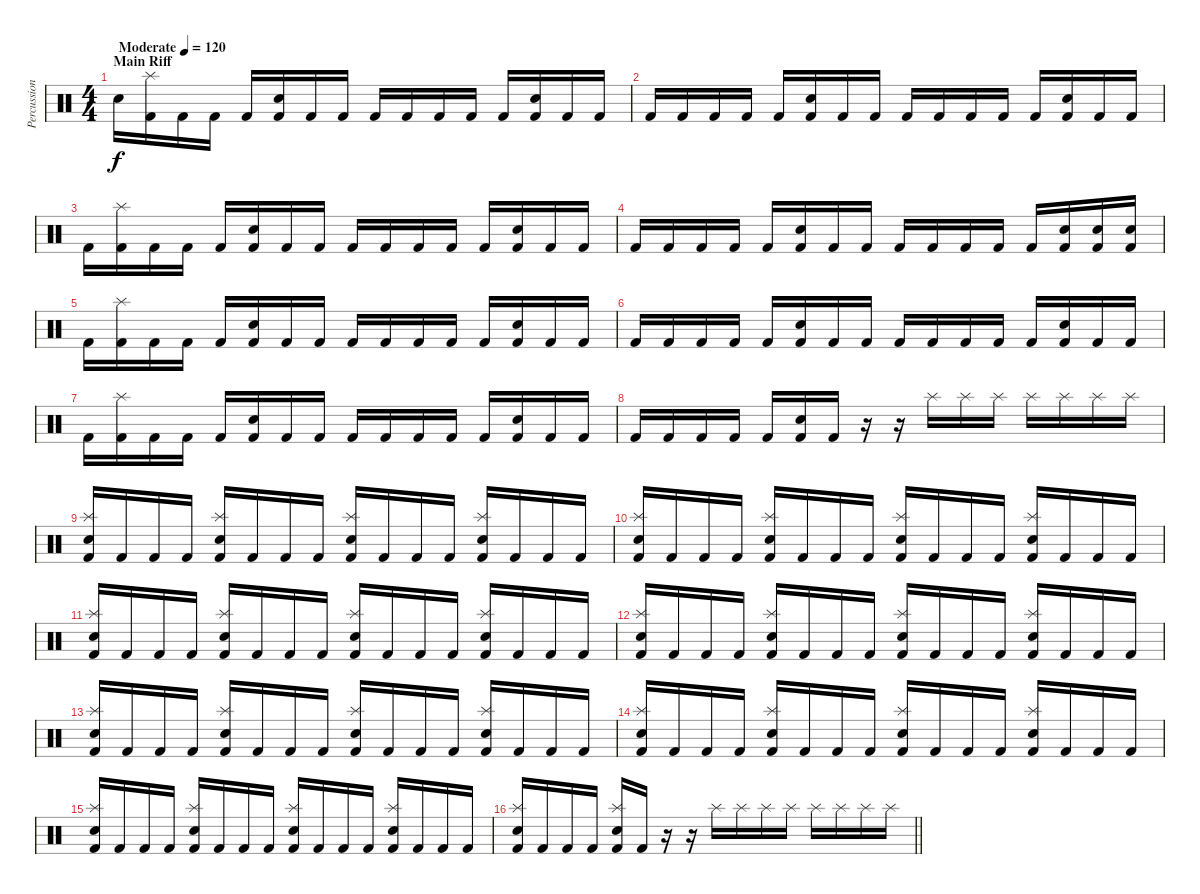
\track ("Percussion" "Percussion") {instrument percussion}
\staff {score}
\articulation defaults
\ts (4 4)
\section ("" "Main Riff")
\tempo (120 "Moderate")
\clef neutral
\ks c "Electric Snare (hit)".16{dy f}
("Splash (hit)" "Kick (hit) 2").16 "Kick (hit) 2".16 "Kick (hit) 2".16 "Kick (hit) 2".16 ("Electric Snare (hit)" "Kick (hit) 2").16 "Kick (hit) 2".16 "Kick (hit) 2".16 "Kick (hit) 2".16 "Kick (hit) 2".16 "Kick (hit) 2".16 "Kick (hit) 2".16 "Kick (hit) 2".16 ("Electric Snare (hit)" "Kick (hit) 2").16 "Kick (hit) 2".16 "Kick (hit) 2".16 |
"Kick (hit) 2".16 "Kick (hit) 2".16 "Kick (hit) 2".16 "Kick (hit) 2".16 "Kick (hit) 2".16 ("Electric Snare (hit)" "Kick (hit) 2").16 "Kick (hit) 2".16 "Kick (hit) 2".16 "Kick (hit) 2".16 "Kick (hit) 2".16 "Kick (hit) 2".16 "Kick (hit) 2".16 "Kick (hit) 2".16 ("Electric Snare (hit)" "Kick (hit) 2").16 "Kick (hit) 2".16 "Kick (hit) 2".16 |
"Kick (hit) 2".16 ("Splash (hit)" "Kick (hit) 2").16 "Kick (hit) 2".16 "Kick (hit) 2".16 "Kick (hit) 2".16 ("Electric Snare (hit)" "Kick (hit) 2").16 "Kick (hit) 2".16 "Kick (hit) 2".16 "Kick (hit) 2".16 "Kick (hit) 2".16 "Kick (hit) 2".16 "Kick (hit) 2".16 "Kick (hit) 2".16 ("Electric Snare (hit)" "Kick (hit) 2").16 "Kick (hit) 2".16 "Kick (hit) 2".16 |
"Kick (hit) 2".16 "Kick (hit) 2".16 "Kick (hit) 2".16 "Kick (hit) 2".16 "Kick (hit) 2".16 ("Electric Snare (hit)" "Kick (hit) 2").16 "Kick (hit) 2".16 "Kick (hit) 2".16 "Kick (hit) 2".16 "Kick (hit) 2".16 "Kick (hit) 2".16 "Kick (hit) 2".16 "Kick (hit) 2".16 ("Electric Snare (hit)" "Kick (hit) 2").16 ("Electric Snare (hit)" "Kick (hit) 2").16 ("Electric Snare (hit)" "Kick (hit) 2").16 |
"Kick (hit) 2".16 ("Splash (hit)" "Kick (hit) 2").16 "Kick (hit) 2".16 "Kick (hit) 2".16 "Kick (hit) 2".16 ("Electric Snare (hit)" "Kick (hit) 2").16 "Kick (hit) 2".16 "Kick (hit) 2".16 "Kick (hit) 2".16 "Kick (hit) 2".16 "Kick (hit) 2".16 "Kick (hit) 2".16 "Kick (hit) 2".16 ("Electric Snare (hit)" "Kick (hit) 2").16 "Kick (hit) 2".16 "Kick (hit) 2".16 |
"Kick (hit) 2".16 "Kick (hit) 2".16 "Kick (hit) 2".16 "Kick (hit) 2".16 "Kick (hit) 2".16 ("Electric Snare (hit)" "Kick (hit) 2").16 "Kick (hit) 2".16 "Kick (hit) 2".16 "Kick (hit) 2".16 "Kick (hit) 2".16 "Kick (hit) 2".16 "Kick (hit) 2".16 "Kick (hit) 2".16 ("Electric Snare (hit)" "Kick (hit) 2").16 "Kick (hit) 2".16 "Kick (hit) 2".16 |
"Kick (hit) 2".16 ("Splash (hit)" "Kick (hit) 2").16 "Kick (hit) 2".16 "Kick (hit) 2".16 "Kick (hit) 2".16 ("Electric Snare (hit)" "Kick (hit) 2").16 "Kick (hit) 2".16 "Kick (hit) 2".16 "Kick (hit) 2".16 "Kick (hit) 2".16 "Kick (hit) 2".16 "Kick (hit) 2".16 "Kick (hit) 2".16 ("Electric Snare (hit)" "Kick (hit) 2").16 "Kick (hit) 2".16 "Kick (hit) 2".16 |
"Kick (hit) 2".16 "Kick (hit) 2".16 "Kick (hit) 2".16 "Kick (hit) 2".16 "Kick (hit) 2".16 ("Electric Snare (hit)" "Kick (hit) 2").16 "Kick (hit) 2".16 r.16 r.16 "Splash (hit)".16 "Splash (hit)".16 "Splash (hit)".16 "Splash (hit)".16 "Splash (hit)".16 "Splash (hit)".16 "Splash (hit)".16 |
("Splash (hit)" "Electric Snare (hit)" "Kick (hit) 2").16 "Kick (hit) 2".16 "Kick (hit) 2".16 "Kick (hit) 2".16 ("Splash (hit)" "Electric Snare (hit)" "Kick (hit) 2").16 "Kick (hit) 2".16 "Kick (hit) 2".16 "Kick (hit) 2".16 ("Splash (hit)" "Electric Snare (hit)" "Kick (hit) 2").16 "Kick (hit) 2".16 "Kick (hit) 2".16 "Kick (hit) 2".16 ("Splash (hit)" "Electric Snare (hit)" "Kick (hit) 2").16 "Kick (hit) 2".16 "Kick (hit) 2".16 "Kick (hit) 2".16 |
("Splash (hit)" "Electric Snare (hit)" "Kick (hit) 2").16 "Kick (hit) 2".16 "Kick (hit) 2".16 "Kick (hit) 2".16 ("Splash (hit)" "Electric Snare (hit)" "Kick (hit) 2").16 "Kick (hit) 2".16 "Kick (hit) 2".16 "Kick (hit) 2".16 ("Splash (hit)" "Electric Snare (hit)" "Kick (hit) 2").16 "Kick (hit) 2".16 "Kick (hit) 2".16 "Kick (hit) 2".16 ("Splash (hit)" "Electric Snare (hit)" "Kick (hit) 2").16 "Kick (hit) 2".16 "Kick (hit) 2".16 "Kick (hit) 2".16 |
("Splash (hit)" "Electric Snare (hit)" "Kick (hit) 2").16 "Kick (hit) 2".16 "Kick (hit) 2".16 "Kick (hit) 2".16 ("Splash (hit)" "Electric Snare (hit)" "Kick (hit) 2").16 "Kick (hit) 2".16 "Kick (hit) 2".16 "Kick (hit) 2".16 ("Splash (hit)" "Electric Snare (hit)" "Kick (hit) 2").16 "Kick (hit) 2".16 "Kick (hit) 2".16 "Kick (hit) 2".16 ("Splash (hit)" "Electric Snare (hit)" "Kick (hit) 2").16 "Kick (hit) 2".16 "Kick (hit) 2".16 "Kick (hit) 2".16 |
("Splash (hit)" "Electric Snare (hit)" "Kick (hit) 2").16 "Kick (hit) 2".16 "Kick (hit) 2".16 "Kick (hit) 2".16 ("Splash (hit)" "Electric Snare (hit)" "Kick (hit) 2").16 "Kick (hit) 2".16 "Kick (hit) 2".16 "Kick (hit) 2".16 ("Splash (hit)" "Electric Snare (hit)" "Kick (hit) 2").16 "Kick (hit) 2".16 "Kick (hit) 2".16 "Kick (hit) 2".16 ("Splash (hit)" "Electric Snare (hit)" "Kick (hit) 2").16 "Kick (hit) 2".16 "Kick (hit) 2".16 "Kick (hit) 2".16 |
("Splash (hit)" "Electric Snare (hit)" "Kick (hit) 2").16 "Kick (hit) 2".16 "Kick (hit) 2".16 "Kick (hit) 2".16 ("Splash (hit)" "Electric Snare (hit)" "Kick (hit) 2").16 "Kick (hit) 2".16 "Kick (hit) 2".16 "Kick (hit) 2".16 ("Splash (hit)" "Electric Snare (hit)" "Kick (hit) 2").16 "Kick (hit) 2".16 "Kick (hit) 2".16 "Kick (hit) 2".16 ("Splash (hit)" "Electric Snare (hit)" "Kick (hit) 2").16 "Kick (hit) 2".16 "Kick (hit) 2".16 "Kick (hit) 2".16 |
("Splash (hit)" "Electric Snare (hit)" "Kick (hit) 2").16 "Kick (hit) 2".16 "Kick (hit) 2".16 "Kick (hit) 2".16 ("Splash (hit)" "Electric Snare (hit)" "Kick (hit) 2").16 "Kick (hit) 2".16 "Kick (hit) 2".16 "Kick (hit) 2".16 ("Splash (hit)" "Electric Snare (hit)" "Kick (hit) 2").16 "Kick (hit) 2".16 "Kick (hit) 2".16 "Kick (hit) 2".16 ("Splash (hit)" "Electric Snare (hit)" "Kick (hit) 2").16 "Kick (hit) 2".16 "Kick (hit) 2".16 "Kick (hit) 2".16 |
("Splash (hit)" "Electric Snare (hit)" "Kick (hit) 2").16 "Kick (hit) 2".16 "Kick (hit) 2".16 "Kick (hit) 2".16 ("Splash (hit)" "Electric Snare (hit)" "Kick (hit) 2").16 "Kick (hit) 2".16 "Kick (hit) 2".16 "Kick (hit) 2".16 ("Splash (hit)" "Electric Snare (hit)" "Kick (hit) 2").16 "Kick (hit) 2".16 "Kick (hit) 2".16 "Kick (hit) 2".16 ("Splash (hit)" "Electric Snare (hit)" "Kick (hit) 2").16 "Kick (hit) 2".16 "Kick (hit) 2".16 "Kick (hit) 2".16 |
\barLineRight lightlight
("Splash (hit)" "Electric Snare (hit)" "Kick (hit) 2").16 "Kick (hit) 2".16 "Kick (hit) 2".16 "Kick (hit) 2".16 ("Splash (hit)" "Electric Snare (hit)" "Kick (hit) 2").16 "Kick (hit) 2".16 r.16 r.16 "Splash (hit)".16 "Splash (hit)".16 "Splash (hit)".16 "Splash (hit)".16 "Splash (hit)".16 "Splash (hit)".16 "Splash (hit)".16 "Splash (hit)".16
